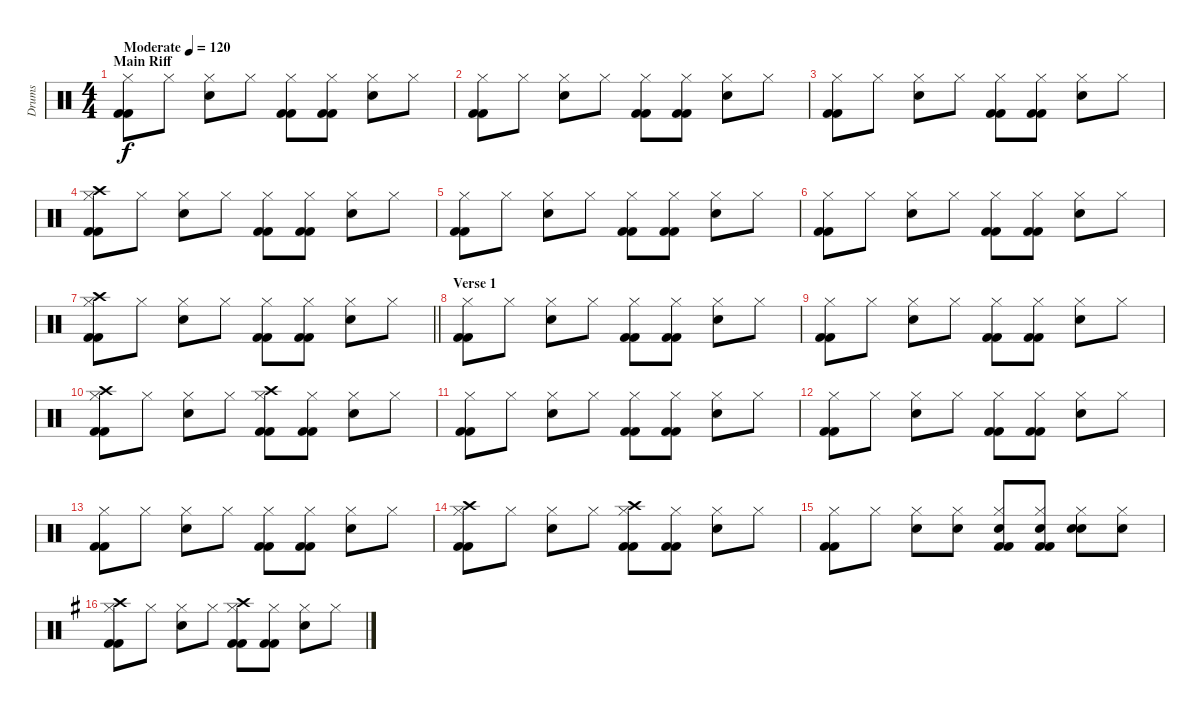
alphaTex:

\track ("Drums" "Drums") {instrument percussion}
\staff {score}
\articulation defaults
\ts (4 4)
\section ("" "Main Riff")
\tempo (120 "Moderate")
\clef neutral
\ks c
("Kick (hit) 2" "Hi-Hat (closed)" "Kick (hit) 2").8{dy f} "Hi-Hat (closed)".8 ("Snare (hit) 2" "Hi-Hat (closed)").8 "Hi-Hat (closed)".8 ("Kick (hit) 2" "Hi-Hat (closed)" "Kick (hit) 2").8 ("Kick (hit) 2" "Hi-Hat (closed)" "Kick (hit) 2").8 ("Snare (hit) 2" "Hi-Hat (closed)").8 "Hi-Hat (closed)".8 |
("Kick (hit) 2" "Hi-Hat (closed)" "Kick (hit) 2").8 "Hi-Hat (closed)".8 ("Snare (hit) 2" "Hi-Hat (closed)").8 "Hi-Hat (closed)".8 ("Kick (hit) 2" "Hi-Hat (closed)" "Kick (hit) 2").8 ("Kick (hit) 2" "Hi-Hat (closed)" "Kick (hit) 2").8 ("Snare (hit) 2" "Hi-Hat (closed)").8 "Hi-Hat (closed)".8 |
("Kick (hit) 2" "Hi-Hat (closed)" "Kick (hit) 2").8 "Hi-Hat (closed)".8 ("Snare (hit) 2" "Hi-Hat (closed)").8 "Hi-Hat (closed)".8 ("Kick (hit) 2" "Hi-Hat (closed)" "Kick (hit) 2").8 ("Kick (hit) 2" "Hi-Hat (closed)" "Kick (hit) 2").8 ("Snare (hit) 2" "Hi-Hat (closed)").8 "Hi-Hat (closed)".8 |
("Kick (hit) 2" "Hi-Hat (closed)" "Kick (hit) 2" "Crash high (hit)").8 "Hi-Hat (closed)".8 ("Snare (hit) 2" "Hi-Hat (closed)").8 "Hi-Hat (closed)".8 ("Kick (hit) 2" "Hi-Hat (closed)" "Kick (hit) 2").8 ("Kick (hit) 2" "Hi-Hat (closed)" "Kick (hit) 2").8 ("Snare (hit) 2" "Hi-Hat (closed)").8 "Hi-Hat (closed)".8 |
("Kick (hit) 2" "Hi-Hat (closed)" "Kick (hit) 2").8 "Hi-Hat (closed)".8 ("Snare (hit) 2" "Hi-Hat (closed)").8 "Hi-Hat (closed)".8 ("Kick (hit) 2" "Hi-Hat (closed)" "Kick (hit) 2").8 ("Kick (hit) 2" "Hi-Hat (closed)" "Kick (hit) 2").8 ("Snare (hit) 2" "Hi-Hat (closed)").8 "Hi-Hat (closed)".8 |
("Kick (hit) 2" "Hi-Hat (closed)" "Kick (hit) 2").8 "Hi-Hat (closed)".8 ("Snare (hit) 2" "Hi-Hat (closed)").8 "Hi-Hat (closed)".8 ("Kick (hit) 2" "Hi-Hat (closed)" "Kick (hit) 2").8 ("Kick (hit) 2" "Hi-Hat (closed)" "Kick (hit) 2").8 ("Snare (hit) 2" "Hi-Hat (closed)").8 "Hi-Hat (closed)".8 |
\barLineRight lightlight
("Kick (hit) 2" "Hi-Hat (closed)" "Kick (hit) 2" "Crash high (hit)").8 "Hi-Hat (closed)".8 ("Snare (hit) 2" "Hi-Hat (closed)").8 "Hi-Hat (closed)".8 ("Kick (hit) 2" "Hi-Hat (closed)" "Kick (hit) 2").8 ("Kick (hit) 2" "Hi-Hat (closed)" "Kick (hit) 2").8 ("Snare (hit) 2" "Hi-Hat (closed)").8 "Hi-Hat (closed)".8 |
\section ("" "Verse 1")
("Kick (hit) 2" "Hi-Hat (closed)" "Kick (hit) 2").8 "Hi-Hat (closed)".8 ("Snare (hit) 2" "Hi-Hat (closed)").8 "Hi-Hat (closed)".8 ("Kick (hit) 2" "Hi-Hat (closed)" "Kick (hit) 2").8 ("Kick (hit) 2" "Hi-Hat (closed)" "Kick (hit) 2").8 ("Snare (hit) 2" "Hi-Hat (closed)").8 "Hi-Hat (closed)".8 |
("Kick (hit) 2" "Hi-Hat (closed)" "Kick (hit) 2").8 "Hi-Hat (closed)".8 ("Snare (hit) 2" "Hi-Hat (closed)").8 "Hi-Hat (closed)".8 ("Kick (hit) 2" "Hi-Hat (closed)" "Kick (hit) 2").8 ("Kick (hit) 2" "Hi-Hat (closed)" "Kick (hit) 2").8 ("Snare (hit) 2" "Hi-Hat (closed)").8 "Hi-Hat (closed)".8 |
("Kick (hit) 2" "Hi-Hat (closed)" "Kick (hit) 2" "Crash high (hit)").8 "Hi-Hat (closed)".8 ("Snare (hit) 2" "Hi-Hat (closed)").8 "Hi-Hat (closed)".8 ("Kick (hit) 2" "Hi-Hat (closed)" "Kick (hit) 2" "Crash high (hit)").8 ("Kick (hit) 2" "Hi-Hat (closed)" "Kick (hit) 2").8 ("Snare (hit) 2" "Hi-Hat (closed)").8 "Hi-Hat (closed)".8 |
("Kick (hit) 2" "Hi-Hat (closed)" "Kick (hit) 2").8 "Hi-Hat (closed)".8 ("Snare (hit) 2" "Hi-Hat (closed)").8 "Hi-Hat (closed)".8 ("Kick (hit) 2" "Hi-Hat (closed)" "Kick (hit) 2").8 ("Kick (hit) 2" "Hi-Hat (closed)" "Kick (hit) 2").8 ("Snare (hit) 2" "Hi-Hat (closed)").8 "Hi-Hat (closed)".8 |
("Kick (hit) 2" "Hi-Hat (closed)" "Kick (hit) 2").8 "Hi-Hat (closed)".8 ("Snare (hit) 2" "Hi-Hat (closed)").8 "Hi-Hat (closed)".8 ("Kick (hit) 2" "Hi-Hat (closed)" "Kick (hit) 2").8 ("Kick (hit) 2" "Hi-Hat (closed)" "Kick (hit) 2").8 ("Snare (hit) 2" "Hi-Hat (closed)").8 "Hi-Hat (closed)".8 |
("Kick (hit) 2" "Hi-Hat (closed)" "Kick (hit) 2").8 "Hi-Hat (closed)".8 ("Snare (hit) 2" "Hi-Hat (closed)").8 "Hi-Hat (closed)".8 ("Kick (hit) 2" "Hi-Hat (closed)" "Kick (hit) 2").8 ("Kick (hit) 2" "Hi-Hat (closed)" "Kick (hit) 2").8 ("Snare (hit) 2" "Hi-Hat (closed)").8 "Hi-Hat (closed)".8 |
("Kick (hit) 2" "Hi-Hat (closed)" "Kick (hit) 2" "Crash high (hit)").8 "Hi-Hat (closed)".8 ("Snare (hit) 2" "Hi-Hat (closed)").8 "Hi-Hat (closed)".8 ("Kick (hit) 2" "Hi-Hat (closed)" "Kick (hit) 2" "Crash high (hit)").8 ("Kick (hit) 2" "Hi-Hat (closed)" "Kick (hit) 2").8 ("Snare (hit) 2" "Hi-Hat (closed)").8 "Hi-Hat (closed)".8 |
("Kick (hit) 2" "Hi-Hat (closed)" "Kick (hit) 2").8 "Hi-Hat (closed)".8 ("Snare (hit) 2" "Hi-Hat (closed)").8 ("Hi-Hat (closed)" "Snare (hit) 2").8 ("Kick (hit) 2" "Hi-Hat (closed)" "Kick (hit) 2" "Snare (hit) 2").8 ("Kick (hit) 2" "Hi-Hat (closed)" "Kick (hit) 2" "Snare (hit) 2").8 ("Snare (hit) 2" "Hi-Hat (closed)" "Snare (hit) 2").8 ("Hi-Hat (closed)" "Snare (hit) 2").8 |
\ks g
("Kick (hit) 2" "Hi-Hat (closed)" "Kick (hit) 2" "Crash high (hit)").8 "Hi-Hat (closed)".8 ("Snare (hit) 2" "Hi-Hat (closed)").8 "Hi-Hat (closed)".8 ("Kick (hit) 2" "Hi-Hat (closed)" "Kick (hit) 2" "Crash high (hit)").8 ("Kick (hit) 2" "Hi-Hat (closed)" "Kick (hit) 2").8 ("Snare (hit) 2" "Hi-Hat (closed)").8 "Hi-Hat (closed)".8
